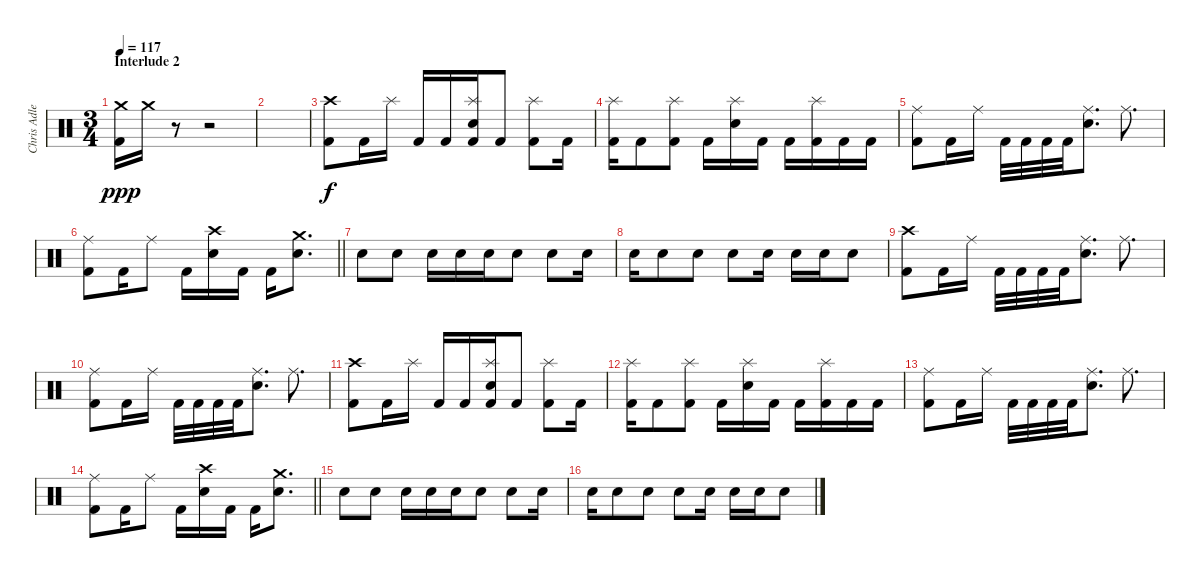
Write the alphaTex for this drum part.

\track ("Chris Adler" "Chris Adle") {instrument percussion}
\staff {score}
\articulation defaults
\ts (3 4)
\section ("" "Interlude 2")
\tempo 117
\clef neutral
\ks c
("Crash medium (hit)" "Kick (hit) 2").16{dy ppp} "Crash medium (hit)".16 r.8 r.2 |
|
("Crash high (hit)" "Kick (hit) 2").8{dy f} "Kick (hit) 2".16 "Splash (hit)".16 "Kick (hit) 2".16 "Kick (hit) 2".16 ("Splash (hit)" "Electric Snare (hit)" "Kick (hit) 2").16 "Kick (hit) 2".8 ("Splash (hit)" "Kick (hit) 2").8 "Kick (hit) 2".16 |
("Splash (hit)" "Kick (hit) 2").16 "Kick (hit) 2".8 ("Splash (hit)" "Kick (hit) 2").8 "Kick (hit) 2".16 ("Splash (hit)" "Electric Snare (hit)").16 "Kick (hit) 2".16 "Kick (hit) 2".16 ("Splash (hit)" "Kick (hit) 2").16 "Kick (hit) 2".16 "Kick (hit) 2".16 |
("Ride (middle)" "Kick (hit) 2").8 "Kick (hit) 2".16 "Ride (middle)".16 "Kick (hit) 2".32 "Kick (hit) 2".32 "Kick (hit) 2".32 "Kick (hit) 2".32 ("Ride (middle)" "Electric Snare (hit)").8{d} "Ride (middle)".8{d} |
\barLineRight lightlight
("Ride (middle)" "Kick (hit) 2").8 "Kick (hit) 2".16 "Ride (middle)".8 "Kick (hit) 2".16 ("Crash high (hit)" "Electric Snare (hit)").16 "Kick (hit) 2".16 "Kick (hit) 2".16 ("Crash medium (hit)" "Electric Snare (hit)").8{d} |
"Electric Snare (hit)".8 "Electric Snare (hit)".8 "Electric Snare (hit)".16 "Electric Snare (hit)".16 "Electric Snare (hit)".16 "Electric Snare (hit)".8 "Electric Snare (hit)".8 "Electric Snare (hit)".16 |
"Electric Snare (hit)".16 "Electric Snare (hit)".8 "Electric Snare (hit)".8 "Electric Snare (hit)".8 "Electric Snare (hit)".16 "Electric Snare (hit)".16 "Electric Snare (hit)".16 "Electric Snare (hit)".8 |
("Crash high (hit)" "Kick (hit) 2").8 "Kick (hit) 2".16 "Ride (middle)".16 "Kick (hit) 2".32 "Kick (hit) 2".32 "Kick (hit) 2".32 "Kick (hit) 2".32 ("Ride (middle)" "Electric Snare (hit)").8{d} "Ride (middle)".8{d} |
("Ride (middle)" "Kick (hit) 2").8 "Kick (hit) 2".16 "Ride (middle)".16 "Kick (hit) 2".32 "Kick (hit) 2".32 "Kick (hit) 2".32 "Kick (hit) 2".32 ("Ride (middle)" "Electric Snare (hit)").8{d} "Ride (middle)".8{d} |
("Crash high (hit)" "Kick (hit) 2").8 "Kick (hit) 2".16 "Splash (hit)".16 "Kick (hit) 2".16 "Kick (hit) 2".16 ("Splash (hit)" "Electric Snare (hit)" "Kick (hit) 2").16 "Kick (hit) 2".8 ("Splash (hit)" "Kick (hit) 2").8 "Kick (hit) 2".16 |
("Splash (hit)" "Kick (hit) 2").16 "Kick (hit) 2".8 ("Splash (hit)" "Kick (hit) 2").8 "Kick (hit) 2".16 ("Splash (hit)" "Electric Snare (hit)").16 "Kick (hit) 2".16 "Kick (hit) 2".16 ("Splash (hit)" "Kick (hit) 2").16 "Kick (hit) 2".16 "Kick (hit) 2".16 |
("Ride (middle)" "Kick (hit) 2").8 "Kick (hit) 2".16 "Ride (middle)".16 "Kick (hit) 2".32 "Kick (hit) 2".32 "Kick (hit) 2".32 "Kick (hit) 2".32 ("Ride (middle)" "Electric Snare (hit)").8{d} "Ride (middle)".8{d} |
\barLineRight lightlight
("Ride (middle)" "Kick (hit) 2").8 "Kick (hit) 2".16 "Ride (middle)".8 "Kick (hit) 2".16 ("Crash high (hit)" "Electric Snare (hit)").16 "Kick (hit) 2".16 "Kick (hit) 2".16 ("Crash medium (hit)" "Electric Snare (hit)").8{d} |
"Electric Snare (hit)".8 "Electric Snare (hit)".8 "Electric Snare (hit)".16 "Electric Snare (hit)".16 "Electric Snare (hit)".16 "Electric Snare (hit)".8 "Electric Snare (hit)".8 "Electric Snare (hit)".16 |
"Electric Snare (hit)".16 "Electric Snare (hit)".8 "Electric Snare (hit)".8 "Electric Snare (hit)".8 "Electric Snare (hit)".16 "Electric Snare (hit)".16 "Electric Snare (hit)".16 "Electric Snare (hit)".8
